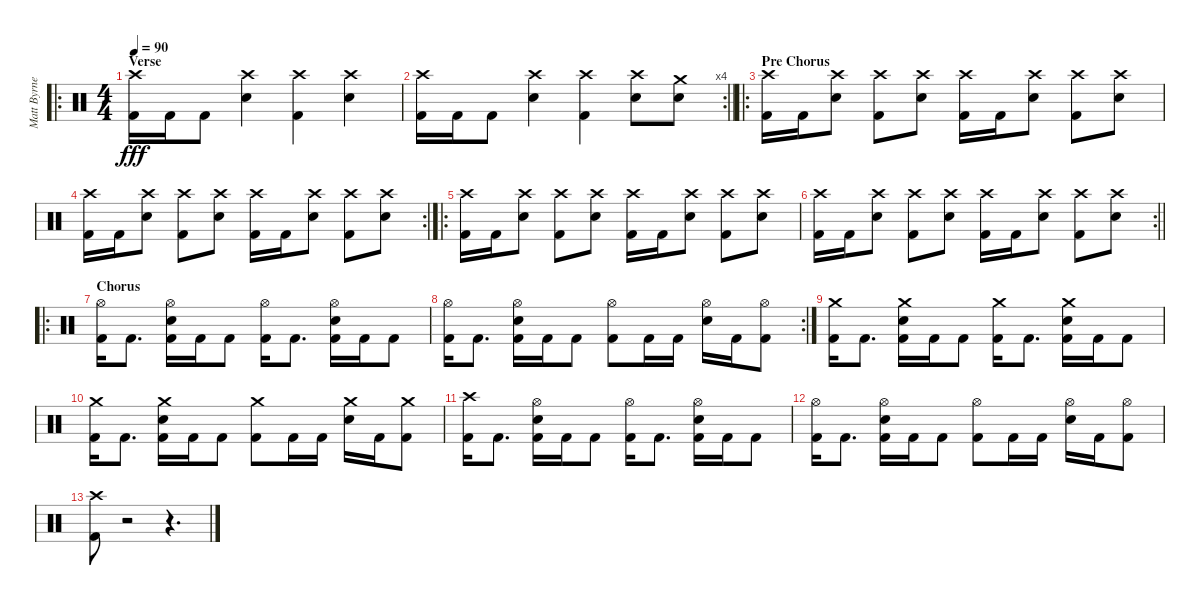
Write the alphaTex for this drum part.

\track ("Matt Byrne" "Matt Byrne") {instrument percussion}
\staff {score}
\articulation defaults
\ro
\ts (4 4)
\section ("" "Verse")
\tempo 90
\clef neutral
\ks c
("Crash high (hit)" "Kick (hit) 2").16{dy fff} "Kick (hit) 2".16 "Kick (hit) 2".8 ("Crash high (hit)" "Snare (hit) 2").4 ("Crash high (hit)" "Kick (hit) 2").4 ("Crash high (hit)" "Snare (hit) 2").4 |
\rc 4
\barLineRight lightlight
("Crash high (hit)" "Kick (hit) 2").16 "Kick (hit) 2".16 "Kick (hit) 2".8 ("Crash high (hit)" "Snare (hit) 2").4 ("Crash high (hit)" "Kick (hit) 2").4 ("Crash high (hit)" "Snare (hit) 2").8 ("Crash medium (hit)" "Snare (hit) 2").8 |
\ro
\section ("" "Pre Chorus")
("Crash high (hit)" "Kick (hit) 2").16 "Kick (hit) 2".16 ("Crash high (hit)" "Snare (hit) 2").8 ("Crash high (hit)" "Kick (hit) 2").8 ("Crash high (hit)" "Snare (hit) 2").8 ("Crash high (hit)" "Kick (hit) 2").16 "Kick (hit) 2".16 ("Crash high (hit)" "Snare (hit) 2").8 ("Crash high (hit)" "Kick (hit) 2").8 ("Crash high (hit)" "Snare (hit) 2").8 |
\rc 2
("Crash high (hit)" "Kick (hit) 2").16 "Kick (hit) 2".16 ("Crash high (hit)" "Snare (hit) 2").8 ("Crash high (hit)" "Kick (hit) 2").8 ("Crash high (hit)" "Snare (hit) 2").8 ("Crash high (hit)" "Kick (hit) 2").16 "Kick (hit) 2".16 ("Crash high (hit)" "Snare (hit) 2").8 ("Crash high (hit)" "Kick (hit) 2").8 ("Crash high (hit)" "Snare (hit) 2").8 |
\ro
("Crash high (hit)" "Kick (hit) 2").16 "Kick (hit) 2".16 ("Crash high (hit)" "Snare (hit) 2").8 ("Crash high (hit)" "Kick (hit) 2").8 ("Crash high (hit)" "Snare (hit) 2").8 ("Crash high (hit)" "Kick (hit) 2").16 "Kick (hit) 2".16 ("Crash high (hit)" "Snare (hit) 2").8 ("Crash high (hit)" "Kick (hit) 2").8 ("Crash high (hit)" "Snare (hit) 2").8 |
\rc 2
\barLineRight lightlight
("Crash high (hit)" "Kick (hit) 2").16 "Kick (hit) 2".16 ("Crash high (hit)" "Snare (hit) 2").8 ("Crash high (hit)" "Kick (hit) 2").8 ("Crash high (hit)" "Snare (hit) 2").8 ("Crash high (hit)" "Kick (hit) 2").16 "Kick (hit) 2".16 ("Crash high (hit)" "Snare (hit) 2").8 ("Crash high (hit)" "Kick (hit) 2").8 ("Crash high (hit)" "Snare (hit) 2").8 |
\ro
\section ("" "Chorus")
("Hi-Hat (open)" "Kick (hit) 2").16 "Kick (hit) 2".8{d} ("Kick (hit) 2" "Hi-Hat (open)" "Snare (hit) 2").16 "Kick (hit) 2".16 "Kick (hit) 2".8 ("Hi-Hat (open)" "Kick (hit) 2").16 "Kick (hit) 2".8{d} ("Kick (hit) 2" "Hi-Hat (open)" "Snare (hit) 2").16 "Kick (hit) 2".16 "Kick (hit) 2".8 |
\rc 2
("Hi-Hat (open)" "Kick (hit) 2").16 "Kick (hit) 2".8{d} ("Kick (hit) 2" "Hi-Hat (open)" "Snare (hit) 2").16 "Kick (hit) 2".16 "Kick (hit) 2".8 ("Hi-Hat (open)" "Kick (hit) 2").8 "Kick (hit) 2".16 "Kick (hit) 2".16 ("Hi-Hat (open)" "Snare (hit) 2").16 "Kick (hit) 2".16 ("Hi-Hat (open)" "Kick (hit) 2").8 |
("Crash medium (hit)" "Kick (hit) 2").16 "Kick (hit) 2".8{d} ("Kick (hit) 2" "Crash medium (hit)" "Snare (hit) 2").16 "Kick (hit) 2".16 "Kick (hit) 2".8 ("Crash medium (hit)" "Kick (hit) 2").16 "Kick (hit) 2".8{d} ("Kick (hit) 2" "Crash medium (hit)" "Snare (hit) 2").16 "Kick (hit) 2".16 "Kick (hit) 2".8 |
("Crash medium (hit)" "Kick (hit) 2").16 "Kick (hit) 2".8{d} ("Kick (hit) 2" "Crash medium (hit)" "Snare (hit) 2").16 "Kick (hit) 2".16 "Kick (hit) 2".8 ("Crash medium (hit)" "Kick (hit) 2").8 "Kick (hit) 2".16 "Kick (hit) 2".16 ("Crash medium (hit)" "Snare (hit) 2").16 "Kick (hit) 2".16 ("Crash medium (hit)" "Kick (hit) 2").8 |
("Crash high (hit)" "Kick (hit) 2").16 "Kick (hit) 2".8{d} ("Kick (hit) 2" "Hi-Hat (open)" "Snare (hit) 2").16 "Kick (hit) 2".16 "Kick (hit) 2".8 ("Hi-Hat (open)" "Kick (hit) 2").16 "Kick (hit) 2".8{d} ("Kick (hit) 2" "Hi-Hat (open)" "Snare (hit) 2").16 "Kick (hit) 2".16 "Kick (hit) 2".8 |
("Hi-Hat (open)" "Kick (hit) 2").16 "Kick (hit) 2".8{d} ("Kick (hit) 2" "Hi-Hat (open)" "Snare (hit) 2").16 "Kick (hit) 2".16 "Kick (hit) 2".8 ("Hi-Hat (open)" "Kick (hit) 2").8 "Kick (hit) 2".16 "Kick (hit) 2".16 ("Hi-Hat (open)" "Snare (hit) 2").16 "Kick (hit) 2".16 ("Hi-Hat (open)" "Kick (hit) 2").8 |
("Crash high (hit)" "Kick (hit) 2").8 r.2 r.4{d}
